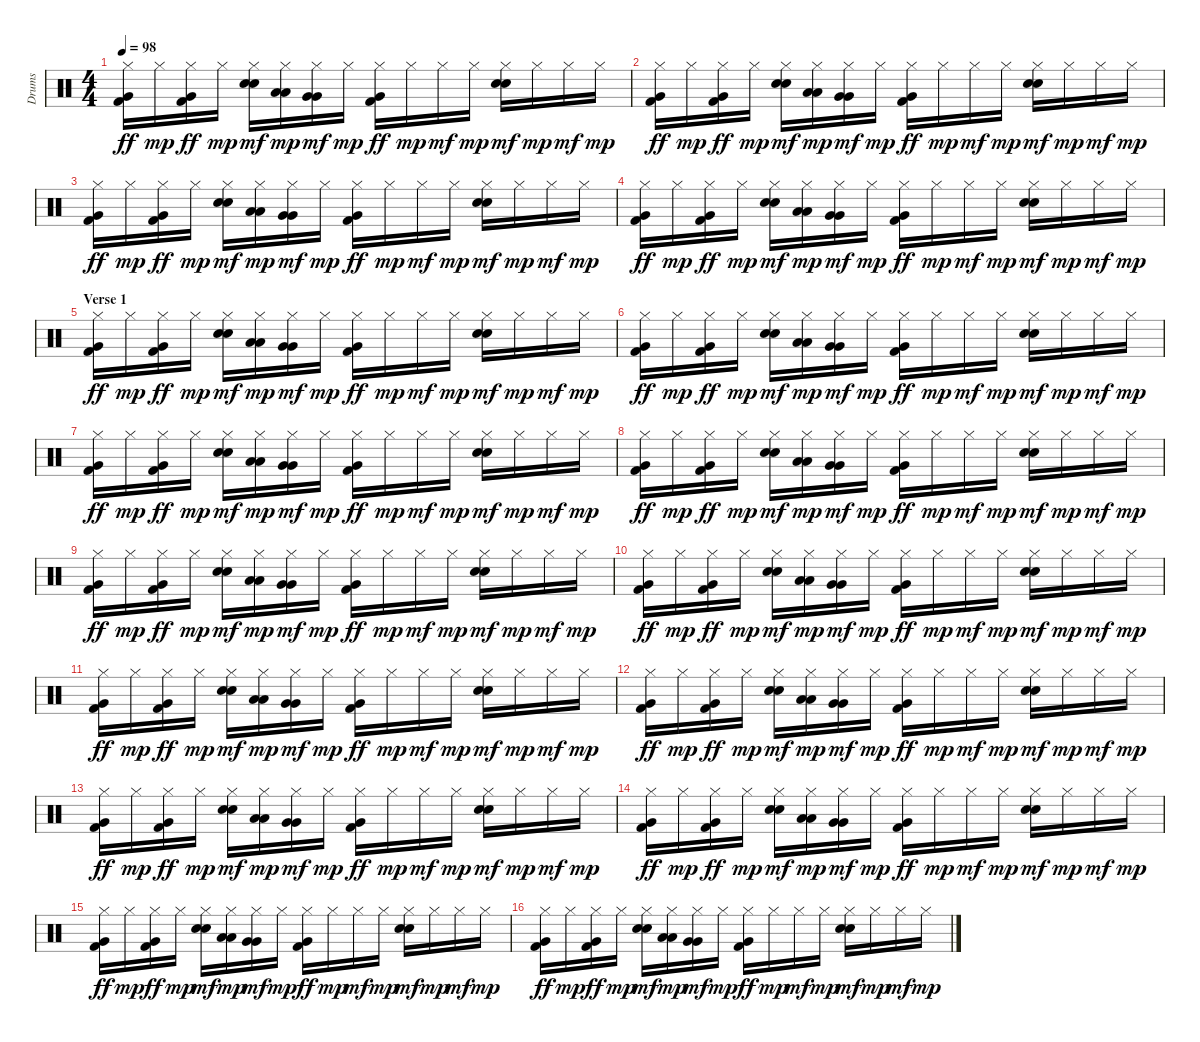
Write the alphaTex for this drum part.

\track ("Drums" "Drums") {instrument percussion}
\staff {score}
\articulation defaults
\ts (4 4)
\tempo 98
\clef neutral
\ks c
("Hi-Hat (closed)" "Very Low Tom (hit)" "Kick (hit) 2").16{dy ff} "Hi-Hat (closed)".16{dy mp} ("Hi-Hat (closed)" "Very Low Tom (hit)" "Kick (hit) 2").16{dy ff} "Hi-Hat (closed)".16{dy mp} ("Hi-Hat (closed)" "Electric Snare (hit)" "Snare (hit) 2").16{dy mf} ("Hi-Hat (closed)" "Low Tom (hit)" "Low Tom (hit)").16{dy mp} ("Hi-Hat (closed)" "Very Low Tom (hit)" "Very Low Tom (hit)").16{dy mf} "Hi-Hat (closed)".16{dy mp} ("Hi-Hat (closed)" "Very Low Tom (hit)" "Kick (hit) 2").16{dy ff} "Hi-Hat (closed)".16{dy mp} "Hi-Hat (closed)".16{dy mf} "Hi-Hat (closed)".16{dy mp} ("Hi-Hat (closed)" "Electric Snare (hit)" "Snare (hit) 2").16{dy mf} "Hi-Hat (closed)".16{dy mp} "Hi-Hat (closed)".16{dy mf} "Hi-Hat (closed)".16{dy mp} |
("Hi-Hat (closed)" "Very Low Tom (hit)" "Kick (hit) 2").16{dy ff} "Hi-Hat (closed)".16{dy mp} ("Hi-Hat (closed)" "Very Low Tom (hit)" "Kick (hit) 2").16{dy ff} "Hi-Hat (closed)".16{dy mp} ("Hi-Hat (closed)" "Electric Snare (hit)" "Snare (hit) 2").16{dy mf} ("Hi-Hat (closed)" "Low Tom (hit)" "Low Tom (hit)").16{dy mp} ("Hi-Hat (closed)" "Very Low Tom (hit)" "Very Low Tom (hit)").16{dy mf} "Hi-Hat (closed)".16{dy mp} ("Hi-Hat (closed)" "Very Low Tom (hit)" "Kick (hit) 2").16{dy ff} "Hi-Hat (closed)".16{dy mp} "Hi-Hat (closed)".16{dy mf} "Hi-Hat (closed)".16{dy mp} ("Hi-Hat (closed)" "Electric Snare (hit)" "Snare (hit) 2").16{dy mf} "Hi-Hat (closed)".16{dy mp} "Hi-Hat (closed)".16{dy mf} "Hi-Hat (closed)".16{dy mp} |
("Hi-Hat (closed)" "Very Low Tom (hit)" "Kick (hit) 2").16{dy ff} "Hi-Hat (closed)".16{dy mp} ("Hi-Hat (closed)" "Very Low Tom (hit)" "Kick (hit) 2").16{dy ff} "Hi-Hat (closed)".16{dy mp} ("Hi-Hat (closed)" "Electric Snare (hit)" "Snare (hit) 2").16{dy mf} ("Hi-Hat (closed)" "Low Tom (hit)" "Low Tom (hit)").16{dy mp} ("Hi-Hat (closed)" "Very Low Tom (hit)" "Very Low Tom (hit)").16{dy mf} "Hi-Hat (closed)".16{dy mp} ("Hi-Hat (closed)" "Very Low Tom (hit)" "Kick (hit) 2").16{dy ff} "Hi-Hat (closed)".16{dy mp} "Hi-Hat (closed)".16{dy mf} "Hi-Hat (closed)".16{dy mp} ("Hi-Hat (closed)" "Electric Snare (hit)" "Snare (hit) 2").16{dy mf} "Hi-Hat (closed)".16{dy mp} "Hi-Hat (closed)".16{dy mf} "Hi-Hat (closed)".16{dy mp} |
("Hi-Hat (closed)" "Very Low Tom (hit)" "Kick (hit) 2").16{dy ff} "Hi-Hat (closed)".16{dy mp} ("Hi-Hat (closed)" "Very Low Tom (hit)" "Kick (hit) 2").16{dy ff} "Hi-Hat (closed)".16{dy mp} ("Hi-Hat (closed)" "Electric Snare (hit)" "Snare (hit) 2").16{dy mf} ("Hi-Hat (closed)" "Low Tom (hit)" "Low Tom (hit)").16{dy mp} ("Hi-Hat (closed)" "Very Low Tom (hit)" "Very Low Tom (hit)").16{dy mf} "Hi-Hat (closed)".16{dy mp} ("Hi-Hat (closed)" "Very Low Tom (hit)" "Kick (hit) 2").16{dy ff} "Hi-Hat (closed)".16{dy mp} "Hi-Hat (closed)".16{dy mf} "Hi-Hat (closed)".16{dy mp} ("Hi-Hat (closed)" "Electric Snare (hit)" "Snare (hit) 2").16{dy mf} "Hi-Hat (closed)".16{dy mp} "Hi-Hat (closed)".16{dy mf} "Hi-Hat (closed)".16{dy mp} |
\section ("" "Verse 1")
("Hi-Hat (closed)" "Very Low Tom (hit)" "Kick (hit) 2").16{dy ff} "Hi-Hat (closed)".16{dy mp} ("Hi-Hat (closed)" "Very Low Tom (hit)" "Kick (hit) 2").16{dy ff} "Hi-Hat (closed)".16{dy mp} ("Hi-Hat (closed)" "Electric Snare (hit)" "Snare (hit) 2").16{dy mf} ("Hi-Hat (closed)" "Low Tom (hit)" "Low Tom (hit)").16{dy mp} ("Hi-Hat (closed)" "Very Low Tom (hit)" "Very Low Tom (hit)").16{dy mf} "Hi-Hat (closed)".16{dy mp} ("Hi-Hat (closed)" "Very Low Tom (hit)" "Kick (hit) 2").16{dy ff} "Hi-Hat (closed)".16{dy mp} "Hi-Hat (closed)".16{dy mf} "Hi-Hat (closed)".16{dy mp} ("Hi-Hat (closed)" "Electric Snare (hit)" "Snare (hit) 2").16{dy mf} "Hi-Hat (closed)".16{dy mp} "Hi-Hat (closed)".16{dy mf} "Hi-Hat (closed)".16{dy mp} |
("Hi-Hat (closed)" "Very Low Tom (hit)" "Kick (hit) 2").16{dy ff} "Hi-Hat (closed)".16{dy mp} ("Hi-Hat (closed)" "Very Low Tom (hit)" "Kick (hit) 2").16{dy ff} "Hi-Hat (closed)".16{dy mp} ("Hi-Hat (closed)" "Electric Snare (hit)" "Snare (hit) 2").16{dy mf} ("Hi-Hat (closed)" "Low Tom (hit)" "Low Tom (hit)").16{dy mp} ("Hi-Hat (closed)" "Very Low Tom (hit)" "Very Low Tom (hit)").16{dy mf} "Hi-Hat (closed)".16{dy mp} ("Hi-Hat (closed)" "Very Low Tom (hit)" "Kick (hit) 2").16{dy ff} "Hi-Hat (closed)".16{dy mp} "Hi-Hat (closed)".16{dy mf} "Hi-Hat (closed)".16{dy mp} ("Hi-Hat (closed)" "Electric Snare (hit)" "Snare (hit) 2").16{dy mf} "Hi-Hat (closed)".16{dy mp} "Hi-Hat (closed)".16{dy mf} "Hi-Hat (closed)".16{dy mp} |
("Hi-Hat (closed)" "Very Low Tom (hit)" "Kick (hit) 2").16{dy ff} "Hi-Hat (closed)".16{dy mp} ("Hi-Hat (closed)" "Very Low Tom (hit)" "Kick (hit) 2").16{dy ff} "Hi-Hat (closed)".16{dy mp} ("Hi-Hat (closed)" "Electric Snare (hit)" "Snare (hit) 2").16{dy mf} ("Hi-Hat (closed)" "Low Tom (hit)" "Low Tom (hit)").16{dy mp} ("Hi-Hat (closed)" "Very Low Tom (hit)" "Very Low Tom (hit)").16{dy mf} "Hi-Hat (closed)".16{dy mp} ("Hi-Hat (closed)" "Very Low Tom (hit)" "Kick (hit) 2").16{dy ff} "Hi-Hat (closed)".16{dy mp} "Hi-Hat (closed)".16{dy mf} "Hi-Hat (closed)".16{dy mp} ("Hi-Hat (closed)" "Electric Snare (hit)" "Snare (hit) 2").16{dy mf} "Hi-Hat (closed)".16{dy mp} "Hi-Hat (closed)".16{dy mf} "Hi-Hat (closed)".16{dy mp} |
("Hi-Hat (closed)" "Very Low Tom (hit)" "Kick (hit) 2").16{dy ff} "Hi-Hat (closed)".16{dy mp} ("Hi-Hat (closed)" "Very Low Tom (hit)" "Kick (hit) 2").16{dy ff} "Hi-Hat (closed)".16{dy mp} ("Hi-Hat (closed)" "Electric Snare (hit)" "Snare (hit) 2").16{dy mf} ("Hi-Hat (closed)" "Low Tom (hit)" "Low Tom (hit)").16{dy mp} ("Hi-Hat (closed)" "Very Low Tom (hit)" "Very Low Tom (hit)").16{dy mf} "Hi-Hat (closed)".16{dy mp} ("Hi-Hat (closed)" "Very Low Tom (hit)" "Kick (hit) 2").16{dy ff} "Hi-Hat (closed)".16{dy mp} "Hi-Hat (closed)".16{dy mf} "Hi-Hat (closed)".16{dy mp} ("Hi-Hat (closed)" "Electric Snare (hit)" "Snare (hit) 2").16{dy mf} "Hi-Hat (closed)".16{dy mp} "Hi-Hat (closed)".16{dy mf} "Hi-Hat (closed)".16{dy mp} |
("Hi-Hat (closed)" "Very Low Tom (hit)" "Kick (hit) 2").16{dy ff} "Hi-Hat (closed)".16{dy mp} ("Hi-Hat (closed)" "Very Low Tom (hit)" "Kick (hit) 2").16{dy ff} "Hi-Hat (closed)".16{dy mp} ("Hi-Hat (closed)" "Electric Snare (hit)" "Snare (hit) 2").16{dy mf} ("Hi-Hat (closed)" "Low Tom (hit)" "Low Tom (hit)").16{dy mp} ("Hi-Hat (closed)" "Very Low Tom (hit)" "Very Low Tom (hit)").16{dy mf} "Hi-Hat (closed)".16{dy mp} ("Hi-Hat (closed)" "Very Low Tom (hit)" "Kick (hit) 2").16{dy ff} "Hi-Hat (closed)".16{dy mp} "Hi-Hat (closed)".16{dy mf} "Hi-Hat (closed)".16{dy mp} ("Hi-Hat (closed)" "Electric Snare (hit)" "Snare (hit) 2").16{dy mf} "Hi-Hat (closed)".16{dy mp} "Hi-Hat (closed)".16{dy mf} "Hi-Hat (closed)".16{dy mp} |
("Hi-Hat (closed)" "Very Low Tom (hit)" "Kick (hit) 2").16{dy ff} "Hi-Hat (closed)".16{dy mp} ("Hi-Hat (closed)" "Very Low Tom (hit)" "Kick (hit) 2").16{dy ff} "Hi-Hat (closed)".16{dy mp} ("Hi-Hat (closed)" "Electric Snare (hit)" "Snare (hit) 2").16{dy mf} ("Hi-Hat (closed)" "Low Tom (hit)" "Low Tom (hit)").16{dy mp} ("Hi-Hat (closed)" "Very Low Tom (hit)" "Very Low Tom (hit)").16{dy mf} "Hi-Hat (closed)".16{dy mp} ("Hi-Hat (closed)" "Very Low Tom (hit)" "Kick (hit) 2").16{dy ff} "Hi-Hat (closed)".16{dy mp} "Hi-Hat (closed)".16{dy mf} "Hi-Hat (closed)".16{dy mp} ("Hi-Hat (closed)" "Electric Snare (hit)" "Snare (hit) 2").16{dy mf} "Hi-Hat (closed)".16{dy mp} "Hi-Hat (closed)".16{dy mf} "Hi-Hat (closed)".16{dy mp} |
("Hi-Hat (closed)" "Very Low Tom (hit)" "Kick (hit) 2").16{dy ff} "Hi-Hat (closed)".16{dy mp} ("Hi-Hat (closed)" "Very Low Tom (hit)" "Kick (hit) 2").16{dy ff} "Hi-Hat (closed)".16{dy mp} ("Hi-Hat (closed)" "Electric Snare (hit)" "Snare (hit) 2").16{dy mf} ("Hi-Hat (closed)" "Low Tom (hit)" "Low Tom (hit)").16{dy mp} ("Hi-Hat (closed)" "Very Low Tom (hit)" "Very Low Tom (hit)").16{dy mf} "Hi-Hat (closed)".16{dy mp} ("Hi-Hat (closed)" "Very Low Tom (hit)" "Kick (hit) 2").16{dy ff} "Hi-Hat (closed)".16{dy mp} "Hi-Hat (closed)".16{dy mf} "Hi-Hat (closed)".16{dy mp} ("Hi-Hat (closed)" "Electric Snare (hit)" "Snare (hit) 2").16{dy mf} "Hi-Hat (closed)".16{dy mp} "Hi-Hat (closed)".16{dy mf} "Hi-Hat (closed)".16{dy mp} |
("Hi-Hat (closed)" "Very Low Tom (hit)" "Kick (hit) 2").16{dy ff} "Hi-Hat (closed)".16{dy mp} ("Hi-Hat (closed)" "Very Low Tom (hit)" "Kick (hit) 2").16{dy ff} "Hi-Hat (closed)".16{dy mp} ("Hi-Hat (closed)" "Electric Snare (hit)" "Snare (hit) 2").16{dy mf} ("Hi-Hat (closed)" "Low Tom (hit)" "Low Tom (hit)").16{dy mp} ("Hi-Hat (closed)" "Very Low Tom (hit)" "Very Low Tom (hit)").16{dy mf} "Hi-Hat (closed)".16{dy mp} ("Hi-Hat (closed)" "Very Low Tom (hit)" "Kick (hit) 2").16{dy ff} "Hi-Hat (closed)".16{dy mp} "Hi-Hat (closed)".16{dy mf} "Hi-Hat (closed)".16{dy mp} ("Hi-Hat (closed)" "Electric Snare (hit)" "Snare (hit) 2").16{dy mf} "Hi-Hat (closed)".16{dy mp} "Hi-Hat (closed)".16{dy mf} "Hi-Hat (closed)".16{dy mp} |
("Hi-Hat (closed)" "Very Low Tom (hit)" "Kick (hit) 2").16{dy ff} "Hi-Hat (closed)".16{dy mp} ("Hi-Hat (closed)" "Very Low Tom (hit)" "Kick (hit) 2").16{dy ff} "Hi-Hat (closed)".16{dy mp} ("Hi-Hat (closed)" "Electric Snare (hit)" "Snare (hit) 2").16{dy mf} ("Hi-Hat (closed)" "Low Tom (hit)" "Low Tom (hit)").16{dy mp} ("Hi-Hat (closed)" "Very Low Tom (hit)" "Very Low Tom (hit)").16{dy mf} "Hi-Hat (closed)".16{dy mp} ("Hi-Hat (closed)" "Very Low Tom (hit)" "Kick (hit) 2").16{dy ff} "Hi-Hat (closed)".16{dy mp} "Hi-Hat (closed)".16{dy mf} "Hi-Hat (closed)".16{dy mp} ("Hi-Hat (closed)" "Electric Snare (hit)" "Snare (hit) 2").16{dy mf} "Hi-Hat (closed)".16{dy mp} "Hi-Hat (closed)".16{dy mf} "Hi-Hat (closed)".16{dy mp} |
("Hi-Hat (closed)" "Very Low Tom (hit)" "Kick (hit) 2").16{dy ff} "Hi-Hat (closed)".16{dy mp} ("Hi-Hat (closed)" "Very Low Tom (hit)" "Kick (hit) 2").16{dy ff} "Hi-Hat (closed)".16{dy mp} ("Hi-Hat (closed)" "Electric Snare (hit)" "Snare (hit) 2").16{dy mf} ("Hi-Hat (closed)" "Low Tom (hit)" "Low Tom (hit)").16{dy mp} ("Hi-Hat (closed)" "Very Low Tom (hit)" "Very Low Tom (hit)").16{dy mf} "Hi-Hat (closed)".16{dy mp} ("Hi-Hat (closed)" "Very Low Tom (hit)" "Kick (hit) 2").16{dy ff} "Hi-Hat (closed)".16{dy mp} "Hi-Hat (closed)".16{dy mf} "Hi-Hat (closed)".16{dy mp} ("Hi-Hat (closed)" "Electric Snare (hit)" "Snare (hit) 2").16{dy mf} "Hi-Hat (closed)".16{dy mp} "Hi-Hat (closed)".16{dy mf} "Hi-Hat (closed)".16{dy mp} |
("Hi-Hat (closed)" "Very Low Tom (hit)" "Kick (hit) 2").16{dy ff} "Hi-Hat (closed)".16{dy mp} ("Hi-Hat (closed)" "Very Low Tom (hit)" "Kick (hit) 2").16{dy ff} "Hi-Hat (closed)".16{dy mp} ("Hi-Hat (closed)" "Electric Snare (hit)" "Snare (hit) 2").16{dy mf} ("Hi-Hat (closed)" "Low Tom (hit)" "Low Tom (hit)").16{dy mp} ("Hi-Hat (closed)" "Very Low Tom (hit)" "Very Low Tom (hit)").16{dy mf} "Hi-Hat (closed)".16{dy mp} ("Hi-Hat (closed)" "Very Low Tom (hit)" "Kick (hit) 2").16{dy ff} "Hi-Hat (closed)".16{dy mp} "Hi-Hat (closed)".16{dy mf} "Hi-Hat (closed)".16{dy mp} ("Hi-Hat (closed)" "Electric Snare (hit)" "Snare (hit) 2").16{dy mf} "Hi-Hat (closed)".16{dy mp} "Hi-Hat (closed)".16{dy mf} "Hi-Hat (closed)".16{dy mp} |
("Hi-Hat (closed)" "Very Low Tom (hit)" "Kick (hit) 2").16{dy ff} "Hi-Hat (closed)".16{dy mp} ("Hi-Hat (closed)" "Very Low Tom (hit)" "Kick (hit) 2").16{dy ff} "Hi-Hat (closed)".16{dy mp} ("Hi-Hat (closed)" "Electric Snare (hit)" "Snare (hit) 2").16{dy mf} ("Hi-Hat (closed)" "Low Tom (hit)" "Low Tom (hit)").16{dy mp} ("Hi-Hat (closed)" "Very Low Tom (hit)" "Very Low Tom (hit)").16{dy mf} "Hi-Hat (closed)".16{dy mp} ("Hi-Hat (closed)" "Very Low Tom (hit)" "Kick (hit) 2").16{dy ff} "Hi-Hat (closed)".16{dy mp} "Hi-Hat (closed)".16{dy mf} "Hi-Hat (closed)".16{dy mp} ("Hi-Hat (closed)" "Electric Snare (hit)" "Snare (hit) 2").16{dy mf} "Hi-Hat (closed)".16{dy mp} "Hi-Hat (closed)".16{dy mf} "Hi-Hat (closed)".16{dy mp}
